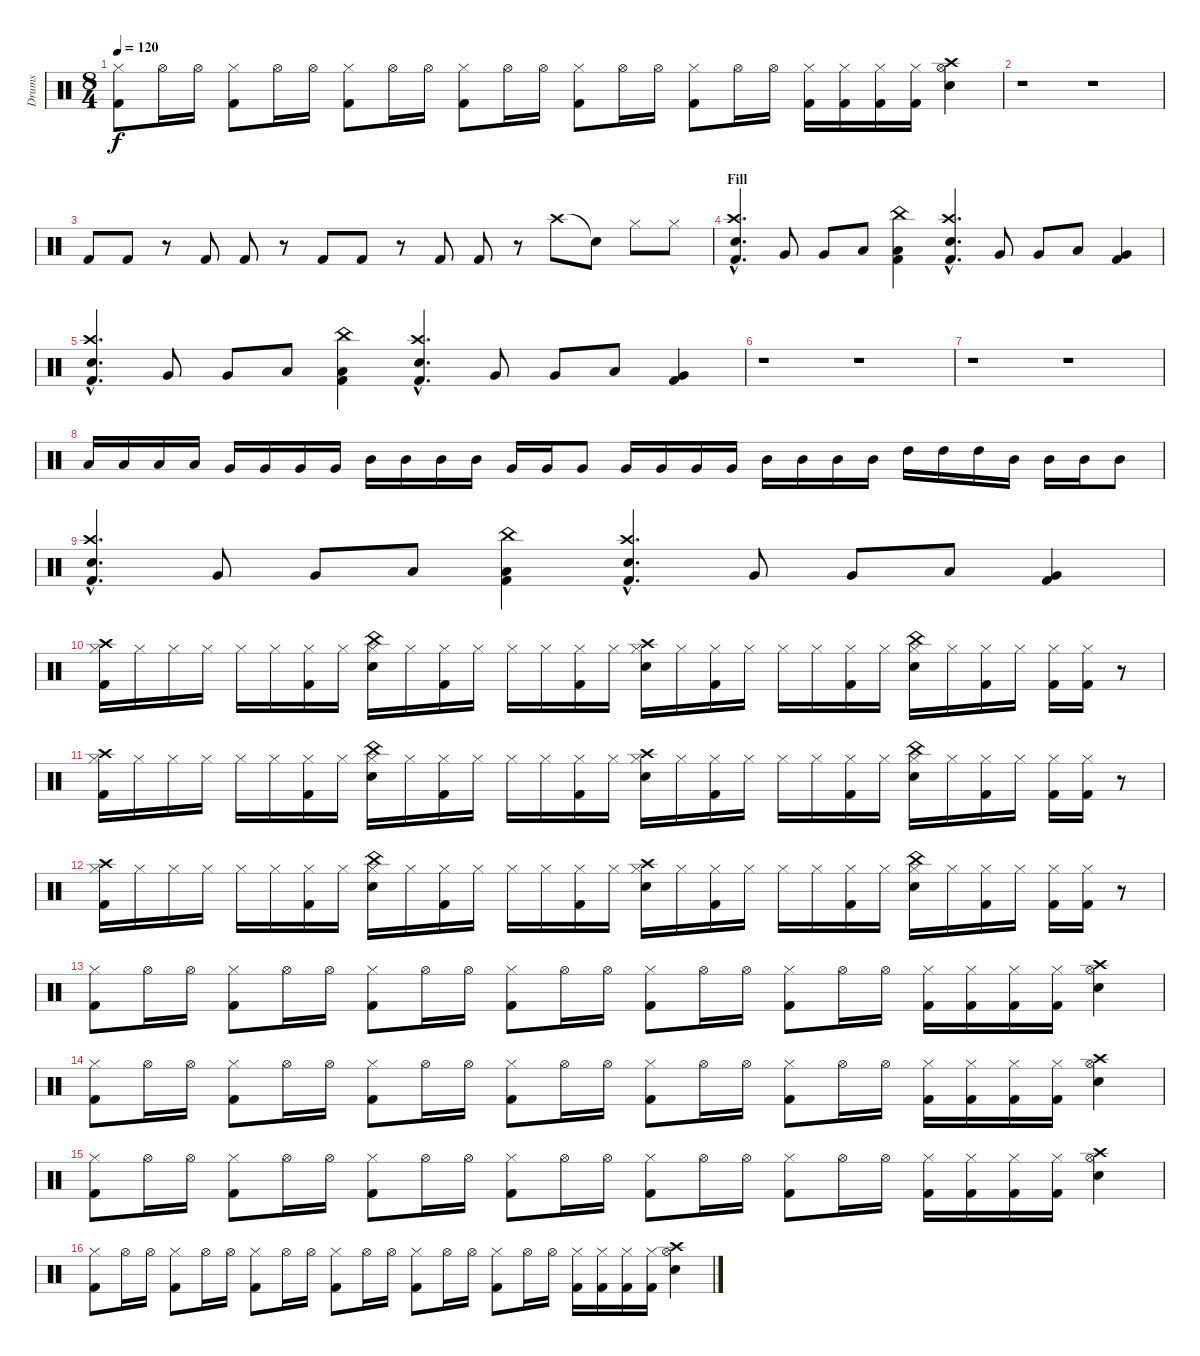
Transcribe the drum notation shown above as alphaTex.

\track ("Drums" "Drums") {instrument percussion}
\staff {score}
\articulation defaults
\ts (8 4)
\tempo 120
\clef neutral
\ks c
("Hi-Hat (closed)" "Kick (hit) 2").8{dy f} "Hi-Hat (open)".16 "Hi-Hat (open)".16 ("Hi-Hat (closed)" "Kick (hit) 2").8 "Hi-Hat (open)".16 "Hi-Hat (open)".16 ("Hi-Hat (closed)" "Kick (hit) 2").8 "Hi-Hat (open)".16 "Hi-Hat (open)".16 ("Hi-Hat (closed)" "Kick (hit) 2").8 "Hi-Hat (open)".16 "Hi-Hat (open)".16 ("Hi-Hat (closed)" "Kick (hit) 2").8 "Hi-Hat (open)".16 "Hi-Hat (open)".16 ("Hi-Hat (closed)" "Kick (hit) 2").8 "Hi-Hat (open)".16 "Hi-Hat (open)".16 ("Hi-Hat (closed)" "Kick (hit) 2").16 ("Hi-Hat (closed)" "Kick (hit) 2").16 ("Hi-Hat (closed)" "Kick (hit) 2").16 ("Hi-Hat (closed)" "Kick (hit) 2").16 ("Crash high (hit)" "Hi-Hat (open)" "Snare (hit) 2").4 |
r.1 r.1 |
"Kick (hit) 2".8 "Kick (hit) 2".8 r.8 "Kick (hit) 2".8 "Kick (hit) 2".8 r.8 "Kick (hit) 2".8 "Kick (hit) 2".8 r.8 "Kick (hit) 2".8 "Kick (hit) 2".8 r.8 "Crash high (hit)".8 "Snare (hit)"{t}.8 "Hi-Hat (closed)".8 "Hi-Hat (closed)".8 |
\section ("" "Fill")
("Crash high (hit)"{hac} "Snare (hit) 2"{hac} "Kick (hit) 2"{hac}).4{d} "Very Low Tom (hit)".8 "Very Low Tom (hit)".8 "Low Floor Tom (hit)".8 ("China (hit)" "Low Floor Tom (hit)" "Kick (hit) 2").4 ("Crash high (hit)"{hac} "Snare (hit) 2"{hac} "Kick (hit) 2"{hac}).4{d} "Very Low Tom (hit)".8 "Very Low Tom (hit)".8 "Low Floor Tom (hit)".8 ("Very Low Tom (hit)" "Kick (hit) 2").4 |
("Crash high (hit)"{hac} "Snare (hit) 2"{hac} "Kick (hit) 2"{hac}).4{d} "Very Low Tom (hit)".8 "Very Low Tom (hit)".8 "Low Floor Tom (hit)".8 ("China (hit)" "Low Floor Tom (hit)" "Kick (hit) 2").4 ("Crash high (hit)"{hac} "Snare (hit) 2"{hac} "Kick (hit) 2"{hac}).4{d} "Very Low Tom (hit)".8 "Very Low Tom (hit)".8 "Low Floor Tom (hit)".8 ("Very Low Tom (hit)" "Kick (hit) 2").4 |
r.1 r.1 |
r.1 r.1 |
"Low Floor Tom (hit)".16 "Low Floor Tom (hit)".16 "Low Floor Tom (hit)".16 "Low Floor Tom (hit)".16 "Very Low Tom (hit)".16 "Very Low Tom (hit)".16 "Very Low Tom (hit)".16 "Very Low Tom (hit)".16 "Mid Tom (hit)".16 "Mid Tom (hit)".16 "Mid Tom (hit)".16 "Mid Tom (hit)".16 "Very Low Tom (hit)".16 "Very Low Tom (hit)".16 "Very Low Tom (hit)".8 "Very Low Tom (hit)".16 "Very Low Tom (hit)".16 "Very Low Tom (hit)".16 "Very Low Tom (hit)".16 "Mid Tom (hit)".16 "Mid Tom (hit)".16 "Mid Tom (hit)".16 "Mid Tom (hit)".16 "High Tom (hit)".16 "High Tom (hit)".16 "High Tom (hit)".16 "Mid Tom (hit)".16 "Mid Tom (hit)".16 "Mid Tom (hit)".16 "Mid Tom (hit)".8 |
("Crash high (hit)"{hac} "Snare (hit) 2"{hac} "Kick (hit) 2"{hac}).4{d} "Very Low Tom (hit)".8 "Very Low Tom (hit)".8 "Low Floor Tom (hit)".8 ("China (hit)" "Low Floor Tom (hit)" "Kick (hit) 2").4 ("Crash high (hit)"{hac} "Snare (hit) 2"{hac} "Kick (hit) 2"{hac}).4{d} "Very Low Tom (hit)".8 "Very Low Tom (hit)".8 "Low Floor Tom (hit)".8 ("Very Low Tom (hit)" "Kick (hit) 2").4 |
("Crash high (hit)" "Hi-Hat (closed)" "Kick (hit) 2").16 "Hi-Hat (closed)".16 "Hi-Hat (closed)".16 "Hi-Hat (closed)".16 "Hi-Hat (closed)".16 "Hi-Hat (closed)".16 ("Hi-Hat (closed)" "Kick (hit) 2").16 "Hi-Hat (closed)".16 ("China (hit)" "Hi-Hat (closed)" "Snare (hit) 2").16 "Hi-Hat (closed)".16 ("Hi-Hat (closed)" "Kick (hit) 2").16 "Hi-Hat (closed)".16 "Hi-Hat (closed)".16 "Hi-Hat (closed)".16 ("Hi-Hat (closed)" "Kick (hit) 2").16 "Hi-Hat (closed)".16 ("Crash high (hit)" "Hi-Hat (closed)" "Snare (hit) 2").16 "Hi-Hat (closed)".16 ("Hi-Hat (closed)" "Kick (hit) 2").16 "Hi-Hat (closed)".16 "Hi-Hat (closed)".16 "Hi-Hat (closed)".16 ("Hi-Hat (closed)" "Kick (hit) 2").16 "Hi-Hat (closed)".16 ("China (hit)" "Hi-Hat (closed)" "Snare (hit) 2").16 "Hi-Hat (closed)".16 ("Hi-Hat (closed)" "Kick (hit) 2").16 "Hi-Hat (closed)".16 ("Hi-Hat (closed)" "Kick (hit) 2").16 ("Hi-Hat (closed)" "Kick (hit) 2").16 r.8 |
("Crash high (hit)" "Hi-Hat (closed)" "Kick (hit) 2").16 "Hi-Hat (closed)".16 "Hi-Hat (closed)".16 "Hi-Hat (closed)".16 "Hi-Hat (closed)".16 "Hi-Hat (closed)".16 ("Hi-Hat (closed)" "Kick (hit) 2").16 "Hi-Hat (closed)".16 ("China (hit)" "Hi-Hat (closed)" "Snare (hit) 2").16 "Hi-Hat (closed)".16 ("Hi-Hat (closed)" "Kick (hit) 2").16 "Hi-Hat (closed)".16 "Hi-Hat (closed)".16 "Hi-Hat (closed)".16 ("Hi-Hat (closed)" "Kick (hit) 2").16 "Hi-Hat (closed)".16 ("Crash high (hit)" "Hi-Hat (closed)" "Snare (hit) 2").16 "Hi-Hat (closed)".16 ("Hi-Hat (closed)" "Kick (hit) 2").16 "Hi-Hat (closed)".16 "Hi-Hat (closed)".16 "Hi-Hat (closed)".16 ("Hi-Hat (closed)" "Kick (hit) 2").16 "Hi-Hat (closed)".16 ("China (hit)" "Hi-Hat (closed)" "Snare (hit) 2").16 "Hi-Hat (closed)".16 ("Hi-Hat (closed)" "Kick (hit) 2").16 "Hi-Hat (closed)".16 ("Hi-Hat (closed)" "Kick (hit) 2").16 ("Hi-Hat (closed)" "Kick (hit) 2").16 r.8 |
("Crash high (hit)" "Hi-Hat (closed)" "Kick (hit) 2").16 "Hi-Hat (closed)".16 "Hi-Hat (closed)".16 "Hi-Hat (closed)".16 "Hi-Hat (closed)".16 "Hi-Hat (closed)".16 ("Hi-Hat (closed)" "Kick (hit) 2").16 "Hi-Hat (closed)".16 ("China (hit)" "Hi-Hat (closed)" "Snare (hit) 2").16 "Hi-Hat (closed)".16 ("Hi-Hat (closed)" "Kick (hit) 2").16 "Hi-Hat (closed)".16 "Hi-Hat (closed)".16 "Hi-Hat (closed)".16 ("Hi-Hat (closed)" "Kick (hit) 2").16 "Hi-Hat (closed)".16 ("Crash high (hit)" "Hi-Hat (closed)" "Snare (hit) 2").16 "Hi-Hat (closed)".16 ("Hi-Hat (closed)" "Kick (hit) 2").16 "Hi-Hat (closed)".16 "Hi-Hat (closed)".16 "Hi-Hat (closed)".16 ("Hi-Hat (closed)" "Kick (hit) 2").16 "Hi-Hat (closed)".16 ("China (hit)" "Hi-Hat (closed)" "Snare (hit) 2").16 "Hi-Hat (closed)".16 ("Hi-Hat (closed)" "Kick (hit) 2").16 "Hi-Hat (closed)".16 ("Hi-Hat (closed)" "Kick (hit) 2").16 ("Hi-Hat (closed)" "Kick (hit) 2").16 r.8 |
("Hi-Hat (closed)" "Kick (hit) 2").8 "Hi-Hat (open)".16 "Hi-Hat (open)".16 ("Hi-Hat (closed)" "Kick (hit) 2").8 "Hi-Hat (open)".16 "Hi-Hat (open)".16 ("Hi-Hat (closed)" "Kick (hit) 2").8 "Hi-Hat (open)".16 "Hi-Hat (open)".16 ("Hi-Hat (closed)" "Kick (hit) 2").8 "Hi-Hat (open)".16 "Hi-Hat (open)".16 ("Hi-Hat (closed)" "Kick (hit) 2").8 "Hi-Hat (open)".16 "Hi-Hat (open)".16 ("Hi-Hat (closed)" "Kick (hit) 2").8 "Hi-Hat (open)".16 "Hi-Hat (open)".16 ("Hi-Hat (closed)" "Kick (hit) 2").16 ("Hi-Hat (closed)" "Kick (hit) 2").16 ("Hi-Hat (closed)" "Kick (hit) 2").16 ("Hi-Hat (closed)" "Kick (hit) 2").16 ("Crash high (hit)" "Hi-Hat (open)" "Snare (hit) 2").4 |
("Hi-Hat (closed)" "Kick (hit) 2").8 "Hi-Hat (open)".16 "Hi-Hat (open)".16 ("Hi-Hat (closed)" "Kick (hit) 2").8 "Hi-Hat (open)".16 "Hi-Hat (open)".16 ("Hi-Hat (closed)" "Kick (hit) 2").8 "Hi-Hat (open)".16 "Hi-Hat (open)".16 ("Hi-Hat (closed)" "Kick (hit) 2").8 "Hi-Hat (open)".16 "Hi-Hat (open)".16 ("Hi-Hat (closed)" "Kick (hit) 2").8 "Hi-Hat (open)".16 "Hi-Hat (open)".16 ("Hi-Hat (closed)" "Kick (hit) 2").8 "Hi-Hat (open)".16 "Hi-Hat (open)".16 ("Hi-Hat (closed)" "Kick (hit) 2").16 ("Hi-Hat (closed)" "Kick (hit) 2").16 ("Hi-Hat (closed)" "Kick (hit) 2").16 ("Hi-Hat (closed)" "Kick (hit) 2").16 ("Crash high (hit)" "Hi-Hat (open)" "Snare (hit) 2").4 |
("Hi-Hat (closed)" "Kick (hit) 2").8 "Hi-Hat (open)".16 "Hi-Hat (open)".16 ("Hi-Hat (closed)" "Kick (hit) 2").8 "Hi-Hat (open)".16 "Hi-Hat (open)".16 ("Hi-Hat (closed)" "Kick (hit) 2").8 "Hi-Hat (open)".16 "Hi-Hat (open)".16 ("Hi-Hat (closed)" "Kick (hit) 2").8 "Hi-Hat (open)".16 "Hi-Hat (open)".16 ("Hi-Hat (closed)" "Kick (hit) 2").8 "Hi-Hat (open)".16 "Hi-Hat (open)".16 ("Hi-Hat (closed)" "Kick (hit) 2").8 "Hi-Hat (open)".16 "Hi-Hat (open)".16 ("Hi-Hat (closed)" "Kick (hit) 2").16 ("Hi-Hat (closed)" "Kick (hit) 2").16 ("Hi-Hat (closed)" "Kick (hit) 2").16 ("Hi-Hat (closed)" "Kick (hit) 2").16 ("Crash high (hit)" "Hi-Hat (open)" "Snare (hit) 2").4 |
("Hi-Hat (closed)" "Kick (hit) 2").8 "Hi-Hat (open)".16 "Hi-Hat (open)".16 ("Hi-Hat (closed)" "Kick (hit) 2").8 "Hi-Hat (open)".16 "Hi-Hat (open)".16 ("Hi-Hat (closed)" "Kick (hit) 2").8 "Hi-Hat (open)".16 "Hi-Hat (open)".16 ("Hi-Hat (closed)" "Kick (hit) 2").8 "Hi-Hat (open)".16 "Hi-Hat (open)".16 ("Hi-Hat (closed)" "Kick (hit) 2").8 "Hi-Hat (open)".16 "Hi-Hat (open)".16 ("Hi-Hat (closed)" "Kick (hit) 2").8 "Hi-Hat (open)".16 "Hi-Hat (open)".16 ("Hi-Hat (closed)" "Kick (hit) 2").16 ("Hi-Hat (closed)" "Kick (hit) 2").16 ("Hi-Hat (closed)" "Kick (hit) 2").16 ("Hi-Hat (closed)" "Kick (hit) 2").16 ("Crash high (hit)" "Hi-Hat (open)" "Snare (hit) 2").4
